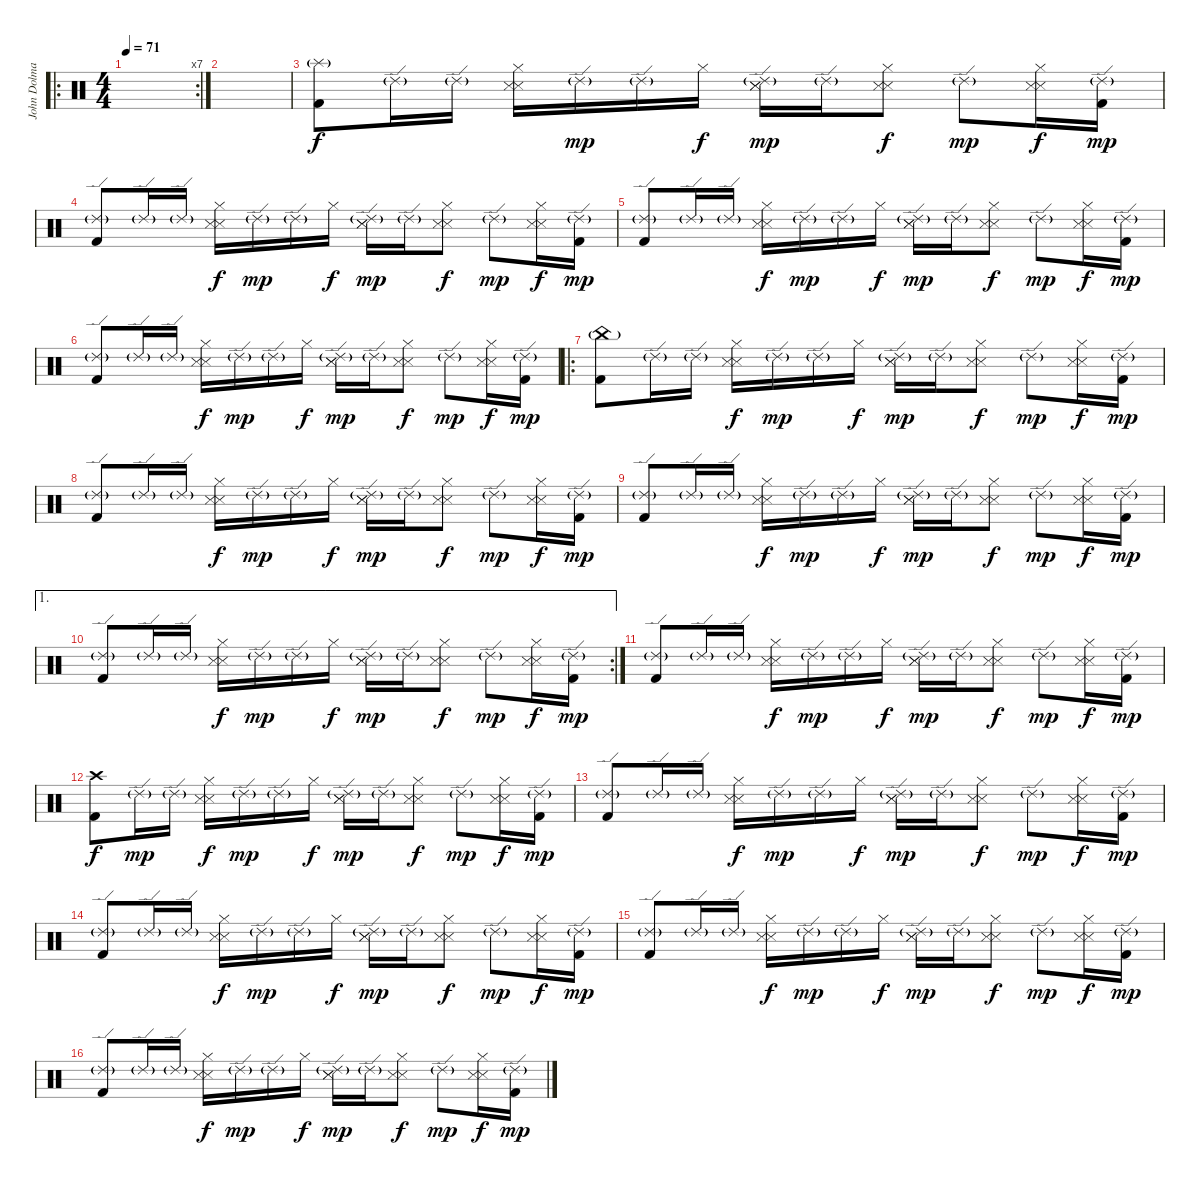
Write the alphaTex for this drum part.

\track ("John Dolmayan (Drums)" "John Dolma") {instrument percussion}
\staff {score}
\articulation defaults
\ro
\rc 7
\ts (4 4)
\tempo 71
\clef neutral
\ks c
|
|
("Splash (hit)"{g} "Kick (hit) 2").8 "Ride (edge) 2"{g}.16 "Ride (edge) 2"{g}.16 ("Hi-Hat (closed)" "Metronome (hit)" "Metronome (hit)").16{dy f} "Ride (edge) 2"{g}.16{dy mp} "Ride (edge) 2"{g}.16 "Hi-Hat (closed)".16{dy f} ("Ride (edge) 2"{g} "Metronome (hit)" "Metronome (hit)").16{dy mp} "Ride (edge) 2"{g}.16 ("Hi-Hat (closed)" "Metronome (hit)" "Metronome (hit)").8{dy f} "Ride (edge) 2"{g}.8{dy mp} ("Hi-Hat (closed)" "Metronome (hit)" "Metronome (hit)").16{dy f} ("Ride (edge) 2"{g} "Kick (hit) 2").16{dy mp} |
("Ride (edge) 2"{g} "Kick (hit) 2").8 "Ride (edge) 2"{g}.16 "Ride (edge) 2"{g}.16 ("Hi-Hat (closed)" "Metronome (hit)" "Metronome (hit)").16{dy f} "Ride (edge) 2"{g}.16{dy mp} "Ride (edge) 2"{g}.16 "Hi-Hat (closed)".16{dy f} ("Ride (edge) 2"{g} "Metronome (hit)" "Metronome (hit)").16{dy mp} "Ride (edge) 2"{g}.16 ("Hi-Hat (closed)" "Metronome (hit)" "Metronome (hit)").8{dy f} "Ride (edge) 2"{g}.8{dy mp} ("Hi-Hat (closed)" "Metronome (hit)" "Metronome (hit)").16{dy f} ("Ride (edge) 2"{g} "Kick (hit) 2").16{dy mp} |
("Ride (edge) 2"{g} "Kick (hit) 2").8 "Ride (edge) 2"{g}.16 "Ride (edge) 2"{g}.16 ("Hi-Hat (closed)" "Metronome (hit)" "Metronome (hit)").16{dy f} "Ride (edge) 2"{g}.16{dy mp} "Ride (edge) 2"{g}.16 "Hi-Hat (closed)".16{dy f} ("Ride (edge) 2"{g} "Metronome (hit)" "Metronome (hit)").16{dy mp} "Ride (edge) 2"{g}.16 ("Hi-Hat (closed)" "Metronome (hit)" "Metronome (hit)").8{dy f} "Ride (edge) 2"{g}.8{dy mp} ("Hi-Hat (closed)" "Metronome (hit)" "Metronome (hit)").16{dy f} ("Ride (edge) 2"{g} "Kick (hit) 2").16{dy mp} |
("Ride (edge) 2"{g} "Kick (hit) 2").8 "Ride (edge) 2"{g}.16 "Ride (edge) 2"{g}.16 ("Hi-Hat (closed)" "Metronome (hit)" "Metronome (hit)").16{dy f} "Ride (edge) 2"{g}.16{dy mp} "Ride (edge) 2"{g}.16 "Hi-Hat (closed)".16{dy f} ("Ride (edge) 2"{g} "Metronome (hit)" "Metronome (hit)").16{dy mp} "Ride (edge) 2"{g}.16 ("Hi-Hat (closed)" "Metronome (hit)" "Metronome (hit)").8{dy f} "Ride (edge) 2"{g}.8{dy mp} ("Hi-Hat (closed)" "Metronome (hit)" "Metronome (hit)").16{dy f} ("Ride (edge) 2"{g} "Kick (hit) 2").16{dy mp} |
\ro
("China (hit)"{g} "Kick (hit) 2").8 "Ride (edge) 2"{g}.16 "Ride (edge) 2"{g}.16 ("Hi-Hat (closed)" "Metronome (hit)" "Metronome (hit)").16{dy f} "Ride (edge) 2"{g}.16{dy mp} "Ride (edge) 2"{g}.16 "Hi-Hat (closed)".16{dy f} ("Ride (edge) 2"{g} "Metronome (hit)" "Metronome (hit)").16{dy mp} "Ride (edge) 2"{g}.16 ("Hi-Hat (closed)" "Metronome (hit)" "Metronome (hit)").8{dy f} "Ride (edge) 2"{g}.8{dy mp} ("Hi-Hat (closed)" "Metronome (hit)" "Metronome (hit)").16{dy f} ("Ride (edge) 2"{g} "Kick (hit) 2").16{dy mp} |
("Ride (edge) 2"{g} "Kick (hit) 2").8 "Ride (edge) 2"{g}.16 "Ride (edge) 2"{g}.16 ("Hi-Hat (closed)" "Metronome (hit)" "Metronome (hit)").16{dy f} "Ride (edge) 2"{g}.16{dy mp} "Ride (edge) 2"{g}.16 "Hi-Hat (closed)".16{dy f} ("Ride (edge) 2"{g} "Metronome (hit)" "Metronome (hit)").16{dy mp} "Ride (edge) 2"{g}.16 ("Hi-Hat (closed)" "Metronome (hit)" "Metronome (hit)").8{dy f} "Ride (edge) 2"{g}.8{dy mp} ("Hi-Hat (closed)" "Metronome (hit)" "Metronome (hit)").16{dy f} ("Ride (edge) 2"{g} "Kick (hit) 2").16{dy mp} |
("Ride (edge) 2"{g} "Kick (hit) 2").8 "Ride (edge) 2"{g}.16 "Ride (edge) 2"{g}.16 ("Hi-Hat (closed)" "Metronome (hit)" "Metronome (hit)").16{dy f} "Ride (edge) 2"{g}.16{dy mp} "Ride (edge) 2"{g}.16 "Hi-Hat (closed)".16{dy f} ("Ride (edge) 2"{g} "Metronome (hit)" "Metronome (hit)").16{dy mp} "Ride (edge) 2"{g}.16 ("Hi-Hat (closed)" "Metronome (hit)" "Metronome (hit)").8{dy f} "Ride (edge) 2"{g}.8{dy mp} ("Hi-Hat (closed)" "Metronome (hit)" "Metronome (hit)").16{dy f} ("Ride (edge) 2"{g} "Kick (hit) 2").16{dy mp} |
\ae 1
\rc 2
("Ride (edge) 2"{g} "Kick (hit) 2").8 "Ride (edge) 2"{g}.16 "Ride (edge) 2"{g}.16 ("Hi-Hat (closed)" "Metronome (hit)" "Metronome (hit)").16{dy f} "Ride (edge) 2"{g}.16{dy mp} "Ride (edge) 2"{g}.16 "Hi-Hat (closed)".16{dy f} ("Ride (edge) 2"{g} "Metronome (hit)" "Metronome (hit)").16{dy mp} "Ride (edge) 2"{g}.16 ("Hi-Hat (closed)" "Metronome (hit)" "Metronome (hit)").8{dy f} "Ride (edge) 2"{g}.8{dy mp} ("Hi-Hat (closed)" "Metronome (hit)" "Metronome (hit)").16{dy f} ("Ride (edge) 2"{g} "Kick (hit) 2").16{dy mp} |
("Ride (edge) 2"{g} "Kick (hit) 2").8 "Ride (edge) 2"{g}.16 "Ride (edge) 2"{g}.16 ("Hi-Hat (closed)" "Metronome (hit)" "Metronome (hit)").16{dy f} "Ride (edge) 2"{g}.16{dy mp} "Ride (edge) 2"{g}.16 "Hi-Hat (closed)".16{dy f} ("Ride (edge) 2"{g} "Metronome (hit)" "Metronome (hit)").16{dy mp} "Ride (edge) 2"{g}.16 ("Hi-Hat (closed)" "Metronome (hit)" "Metronome (hit)").8{dy f} "Ride (edge) 2"{g}.8{dy mp} ("Hi-Hat (closed)" "Metronome (hit)" "Metronome (hit)").16{dy f} ("Ride (edge) 2"{g} "Kick (hit) 2").16{dy mp} |
("Crash high (hit)" "Kick (hit) 2").8{dy f} "Ride (edge) 2"{g}.16{dy mp} "Ride (edge) 2"{g}.16 ("Hi-Hat (closed)" "Metronome (hit)" "Metronome (hit)").16{dy f} "Ride (edge) 2"{g}.16{dy mp} "Ride (edge) 2"{g}.16 "Hi-Hat (closed)".16{dy f} ("Ride (edge) 2"{g} "Metronome (hit)" "Metronome (hit)").16{dy mp} "Ride (edge) 2"{g}.16 ("Hi-Hat (closed)" "Metronome (hit)" "Metronome (hit)").8{dy f} "Ride (edge) 2"{g}.8{dy mp} ("Hi-Hat (closed)" "Metronome (hit)" "Metronome (hit)").16{dy f} ("Ride (edge) 2"{g} "Kick (hit) 2").16{dy mp} |
("Ride (edge) 2"{g} "Kick (hit) 2").8 "Ride (edge) 2"{g}.16 "Ride (edge) 2"{g}.16 ("Hi-Hat (closed)" "Metronome (hit)" "Metronome (hit)").16{dy f} "Ride (edge) 2"{g}.16{dy mp} "Ride (edge) 2"{g}.16 "Hi-Hat (closed)".16{dy f} ("Ride (edge) 2"{g} "Metronome (hit)" "Metronome (hit)").16{dy mp} "Ride (edge) 2"{g}.16 ("Hi-Hat (closed)" "Metronome (hit)" "Metronome (hit)").8{dy f} "Ride (edge) 2"{g}.8{dy mp} ("Hi-Hat (closed)" "Metronome (hit)" "Metronome (hit)").16{dy f} ("Ride (edge) 2"{g} "Kick (hit) 2").16{dy mp} |
("Ride (edge) 2"{g} "Kick (hit) 2").8 "Ride (edge) 2"{g}.16 "Ride (edge) 2"{g}.16 ("Hi-Hat (closed)" "Metronome (hit)" "Metronome (hit)").16{dy f} "Ride (edge) 2"{g}.16{dy mp} "Ride (edge) 2"{g}.16 "Hi-Hat (closed)".16{dy f} ("Ride (edge) 2"{g} "Metronome (hit)" "Metronome (hit)").16{dy mp} "Ride (edge) 2"{g}.16 ("Hi-Hat (closed)" "Metronome (hit)" "Metronome (hit)").8{dy f} "Ride (edge) 2"{g}.8{dy mp} ("Hi-Hat (closed)" "Metronome (hit)" "Metronome (hit)").16{dy f} ("Ride (edge) 2"{g} "Kick (hit) 2").16{dy mp} |
("Ride (edge) 2"{g} "Kick (hit) 2").8 "Ride (edge) 2"{g}.16 "Ride (edge) 2"{g}.16 ("Hi-Hat (closed)" "Metronome (hit)" "Metronome (hit)").16{dy f} "Ride (edge) 2"{g}.16{dy mp} "Ride (edge) 2"{g}.16 "Hi-Hat (closed)".16{dy f} ("Ride (edge) 2"{g} "Metronome (hit)" "Metronome (hit)").16{dy mp} "Ride (edge) 2"{g}.16 ("Hi-Hat (closed)" "Metronome (hit)" "Metronome (hit)").8{dy f} "Ride (edge) 2"{g}.8{dy mp} ("Hi-Hat (closed)" "Metronome (hit)" "Metronome (hit)").16{dy f} ("Ride (edge) 2"{g} "Kick (hit) 2").16{dy mp} |
("Ride (edge) 2"{g} "Kick (hit) 2").8 "Ride (edge) 2"{g}.16 "Ride (edge) 2"{g}.16 ("Hi-Hat (closed)" "Metronome (hit)" "Metronome (hit)").16{dy f} "Ride (edge) 2"{g}.16{dy mp} "Ride (edge) 2"{g}.16 "Hi-Hat (closed)".16{dy f} ("Ride (edge) 2"{g} "Metronome (hit)" "Metronome (hit)").16{dy mp} "Ride (edge) 2"{g}.16 ("Hi-Hat (closed)" "Metronome (hit)" "Metronome (hit)").8{dy f} "Ride (edge) 2"{g}.8{dy mp} ("Hi-Hat (closed)" "Metronome (hit)" "Metronome (hit)").16{dy f} ("Ride (edge) 2"{g} "Kick (hit) 2").16{dy mp volume 7}
